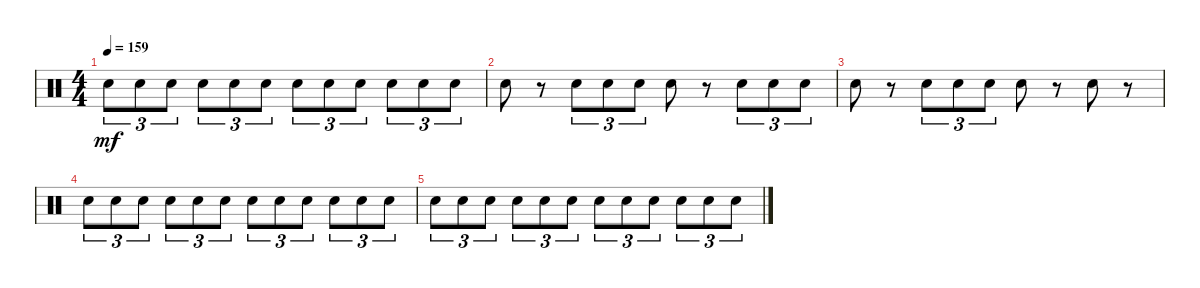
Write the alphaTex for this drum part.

\track "" {instrument percussion}
\staff {score}
\articulation defaults
\ts (4 4)
\tempo 159
\clef neutral
\ks c "Electric Snare (hit)".8{tu (3 2) dy mf} "Electric Snare (hit)".8{tu (3 2)} "Electric Snare (hit)".8{tu (3 2)} "Electric Snare (hit)".8{tu (3 2)} "Electric Snare (hit)".8{tu (3 2)} "Electric Snare (hit)".8{tu (3 2)} "Electric Snare (hit)".8{tu (3 2)} "Electric Snare (hit)".8{tu (3 2)} "Electric Snare (hit)".8{tu (3 2)} "Electric Snare (hit)".8{tu (3 2)} "Electric Snare (hit)".8{tu (3 2)} "Electric Snare (hit)".8{tu (3 2)}
|
"Electric Snare (hit)".8 r.8 "Electric Snare (hit)".8{tu (3 2)} "Electric Snare (hit)".8{tu (3 2)} "Electric Snare (hit)".8{tu (3 2)} "Electric Snare (hit)".8 r.8 "Electric Snare (hit)".8{tu (3 2)} "Electric Snare (hit)".8{tu (3 2)} "Electric Snare (hit)".8{tu (3 2)} |
"Electric Snare (hit)".8 r.8 "Electric Snare (hit)".8{tu (3 2)} "Electric Snare (hit)".8{tu (3 2)} "Electric Snare (hit)".8{tu (3 2)} "Electric Snare (hit)".8 r.8 "Electric Snare (hit)".8 r.8 |
"Electric Snare (hit)".8{tu (3 2)} "Electric Snare (hit)".8{tu (3 2)} "Electric Snare (hit)".8{tu (3 2)} "Electric Snare (hit)".8{tu (3 2)} "Electric Snare (hit)".8{tu (3 2)} "Electric Snare (hit)".8{tu (3 2)} "Electric Snare (hit)".8{tu (3 2)} "Electric Snare (hit)".8{tu (3 2)} "Electric Snare (hit)".8{tu (3 2)} "Electric Snare (hit)".8{tu (3 2)} "Electric Snare (hit)".8{tu (3 2)} "Electric Snare (hit)".8{tu (3 2)} |
"Electric Snare (hit)".8{tu (3 2)} "Electric Snare (hit)".8{tu (3 2)} "Electric Snare (hit)".8{tu (3 2)} "Electric Snare (hit)".8{tu (3 2)} "Electric Snare (hit)".8{tu (3 2)} "Electric Snare (hit)".8{tu (3 2)} "Electric Snare (hit)".8{tu (3 2)} "Electric Snare (hit)".8{tu (3 2)} "Electric Snare (hit)".8{tu (3 2)} "Electric Snare (hit)".8{tu (3 2)} "Electric Snare (hit)".8{tu (3 2)} "Electric Snare (hit)".8{tu (3 2)}
